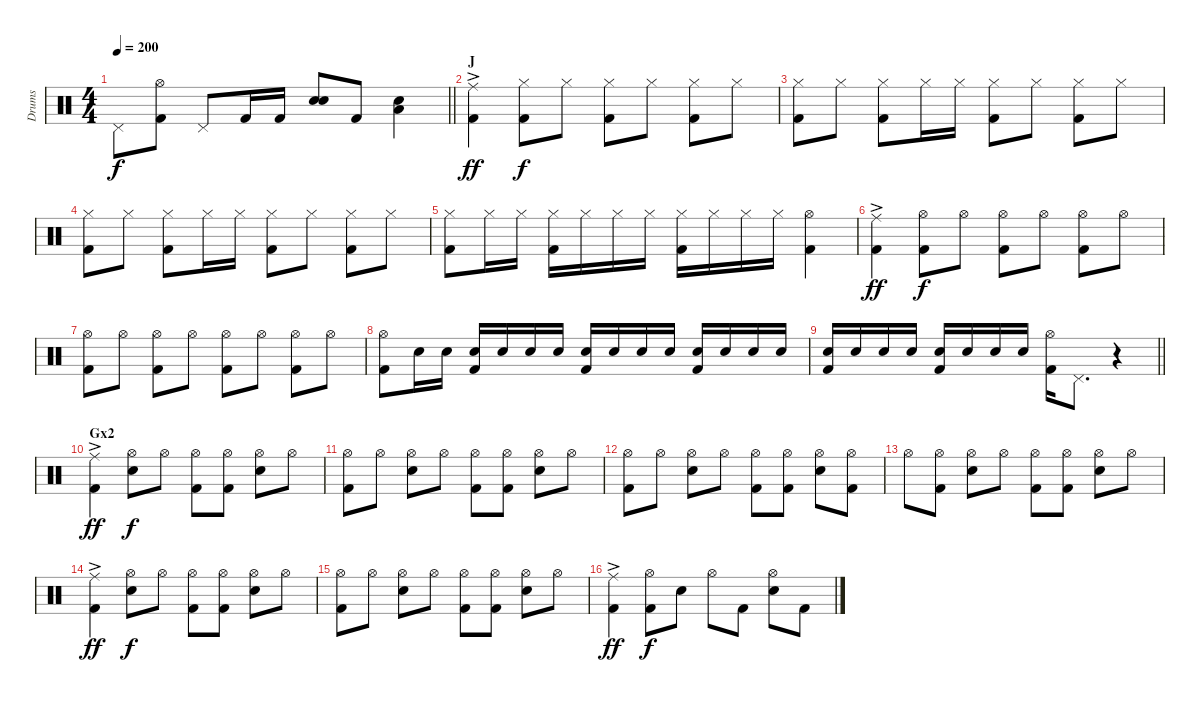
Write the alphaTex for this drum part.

\track ("Drums" "Drums") {instrument percussion}
\staff {score}
\articulation defaults
\ts (4 4)
\tempo 200
\clef neutral
\barLineRight lightlight
\ks c "Pedal Hi-Hat (hit)".8{dy f}
("Hi-Hat (open)" "Kick (hit) 2").8 "Pedal Hi-Hat (hit)".8 "Kick (hit) 2".16 "Kick (hit) 2".16 ("Snare (hit) 2" "Snare (hit) 2").8 "Kick (hit) 2".8 ("Snare (hit) 2" "Low Tom (hit)").4 |
\section ("" "J")
("Ride (middle)"{ac} "Kick (hit) 2").4{dy ff} ("Hi-Hat (closed)" "Kick (hit) 2").8{dy f} "Hi-Hat (closed)".8 ("Hi-Hat (closed)" "Kick (hit) 2").8 "Hi-Hat (closed)".8 ("Hi-Hat (closed)" "Kick (hit) 2").8 "Hi-Hat (closed)".8 |
("Hi-Hat (closed)" "Kick (hit) 2").8 "Hi-Hat (closed)".8 ("Hi-Hat (closed)" "Kick (hit) 2").8 "Hi-Hat (closed)".16 "Hi-Hat (closed)".16 ("Hi-Hat (closed)" "Kick (hit) 2").8 "Hi-Hat (closed)".8 ("Hi-Hat (closed)" "Kick (hit) 2").8 "Hi-Hat (closed)".8 |
("Hi-Hat (closed)" "Kick (hit) 2").8 "Hi-Hat (closed)".8 ("Hi-Hat (closed)" "Kick (hit) 2").8 "Hi-Hat (closed)".16 "Hi-Hat (closed)".16 ("Hi-Hat (closed)" "Kick (hit) 2").8 "Hi-Hat (closed)".8 ("Hi-Hat (closed)" "Kick (hit) 2").8 "Hi-Hat (closed)".8 |
("Hi-Hat (closed)" "Kick (hit) 2").8 "Hi-Hat (closed)".16 "Hi-Hat (closed)".16 ("Hi-Hat (closed)" "Kick (hit) 2").16 "Hi-Hat (closed)".16 "Hi-Hat (closed)".16 "Hi-Hat (closed)".16 ("Hi-Hat (closed)" "Kick (hit) 2").16 "Hi-Hat (closed)".16 "Hi-Hat (closed)".16 "Hi-Hat (closed)".16 ("Hi-Hat (open)" "Kick (hit) 2").4 |
("Ride (middle)"{ac} "Kick (hit) 2").4{dy ff} ("Hi-Hat (open)" "Kick (hit) 2").8{dy f} "Hi-Hat (open)".8 ("Hi-Hat (open)" "Kick (hit) 2").8 "Hi-Hat (open)".8 ("Hi-Hat (open)" "Kick (hit) 2").8 "Hi-Hat (open)".8 |
("Hi-Hat (open)" "Kick (hit) 2").8 "Hi-Hat (open)".8 ("Hi-Hat (open)" "Kick (hit) 2").8 "Hi-Hat (open)".8 ("Hi-Hat (open)" "Kick (hit) 2").8 "Hi-Hat (open)".8 ("Hi-Hat (open)" "Kick (hit) 2").8 "Hi-Hat (open)".8 |
("Hi-Hat (open)" "Kick (hit) 2").8 "Snare (hit) 2".16 "Snare (hit) 2".16 ("Snare (hit) 2" "Kick (hit) 2").16 "Snare (hit) 2".16 "Snare (hit) 2".16 "Snare (hit) 2".16 ("Snare (hit) 2" "Kick (hit) 2").16 "Snare (hit) 2".16 "Snare (hit) 2".16 "Snare (hit) 2".16 ("Snare (hit) 2" "Kick (hit) 2").16 "Snare (hit) 2".16 "Snare (hit) 2".16 "Snare (hit) 2".16 |
\barLineRight lightlight
("Snare (hit) 2" "Kick (hit) 2").16 "Snare (hit) 2".16 "Snare (hit) 2".16 "Snare (hit) 2".16 ("Snare (hit) 2" "Kick (hit) 2").16 "Snare (hit) 2".16 "Snare (hit) 2".16 "Snare (hit) 2".16 ("Hi-Hat (open)" "Kick (hit) 2").16 "Pedal Hi-Hat (hit)".8{d} r.4 |
\section ("" "Gx2")
("Ride (middle)"{ac} "Kick (hit) 2").4{dy ff} ("Hi-Hat (open)" "Snare (hit) 2").8{dy f} "Hi-Hat (open)".8 ("Hi-Hat (open)" "Kick (hit) 2").8 ("Hi-Hat (open)" "Kick (hit) 2").8 ("Hi-Hat (open)" "Snare (hit) 2").8 "Hi-Hat (open)".8 |
("Hi-Hat (open)" "Kick (hit) 2").8 "Hi-Hat (open)".8 ("Hi-Hat (open)" "Snare (hit) 2").8 "Hi-Hat (open)".8 ("Hi-Hat (open)" "Kick (hit) 2").8 ("Hi-Hat (open)" "Kick (hit) 2").8 ("Hi-Hat (open)" "Snare (hit) 2").8 "Hi-Hat (open)".8 |
("Hi-Hat (open)" "Kick (hit) 2").8 "Hi-Hat (open)".8 ("Hi-Hat (open)" "Snare (hit) 2").8 "Hi-Hat (open)".8 ("Hi-Hat (open)" "Kick (hit) 2").8 ("Hi-Hat (open)" "Kick (hit) 2").8 ("Hi-Hat (open)" "Snare (hit) 2").8 ("Hi-Hat (open)" "Kick (hit) 2").8 |
"Hi-Hat (open)".8 ("Hi-Hat (open)" "Kick (hit) 2").8 ("Hi-Hat (open)" "Snare (hit) 2").8 "Hi-Hat (open)".8 ("Hi-Hat (open)" "Kick (hit) 2").8 ("Hi-Hat (open)" "Kick (hit) 2").8 ("Hi-Hat (open)" "Snare (hit) 2").8 "Hi-Hat (open)".8 |
("Ride (middle)"{ac} "Kick (hit) 2").4{dy ff} ("Hi-Hat (open)" "Snare (hit) 2").8{dy f} "Hi-Hat (open)".8 ("Hi-Hat (open)" "Kick (hit) 2").8 ("Hi-Hat (open)" "Kick (hit) 2").8 ("Hi-Hat (open)" "Snare (hit) 2").8 "Hi-Hat (open)".8 |
("Hi-Hat (open)" "Kick (hit) 2").8 "Hi-Hat (open)".8 ("Hi-Hat (open)" "Snare (hit) 2").8 "Hi-Hat (open)".8 ("Hi-Hat (open)" "Kick (hit) 2").8 ("Hi-Hat (open)" "Kick (hit) 2").8 ("Hi-Hat (open)" "Snare (hit) 2").8 "Hi-Hat (open)".8 |
("Ride (middle)"{ac} "Kick (hit) 2").4{dy ff} ("Hi-Hat (open)" "Kick (hit) 2").8{dy f} "Snare (hit) 2".8 "Hi-Hat (open)".8 "Kick (hit) 2".8 ("Hi-Hat (open)" "Snare (hit) 2").8 "Kick (hit) 2".8
